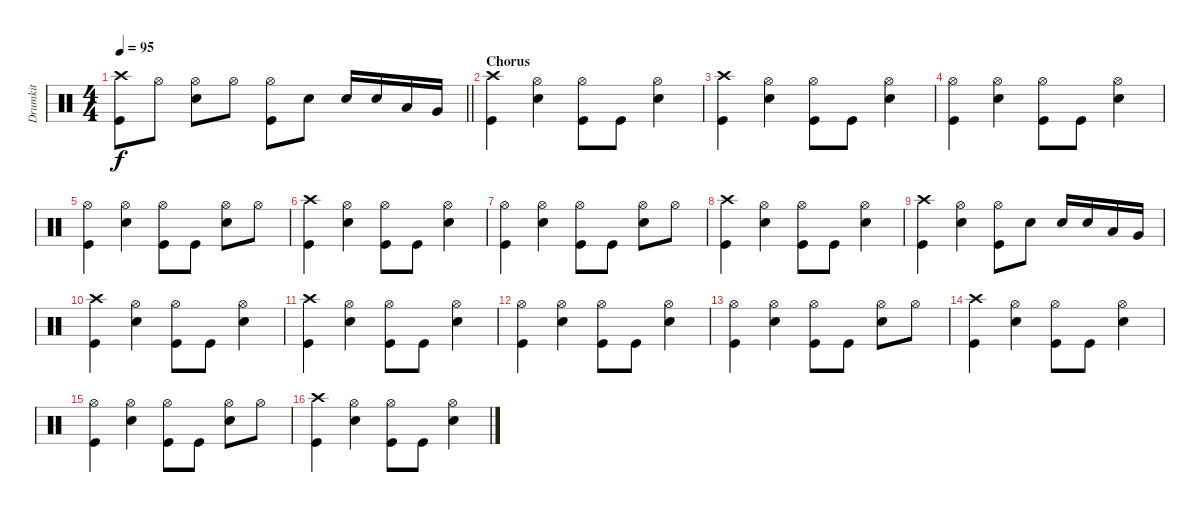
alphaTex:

\track ("Drumkit" "Drumkit") {instrument percussion}
\staff {score}
\articulation defaults
\ts (4 4)
\tempo 95
\clef neutral
\barLineRight lightlight
\ks c
("Kick (hit)" "Crash high (hit)").8{dy f} "Hi-Hat (open)".8 ("Snare (hit) 2" "Hi-Hat (open)").8 "Hi-Hat (open)".8 ("Hi-Hat (open)" "Kick (hit)").8 "Snare (hit) 2".8 "Snare (hit) 2".16 "Snare (hit) 2".16 "Low Tom (hit)".16 "Very Low Tom (hit)".16 |
\section ("" "Chorus")
("Kick (hit)" "Crash high (hit)").4 ("Snare (hit) 2" "Hi-Hat (open)").4 ("Kick (hit)" "Hi-Hat (open)").8 "Kick (hit)".8 ("Snare (hit) 2" "Hi-Hat (open)").4 |
("Kick (hit)" "Crash high (hit)").4 ("Snare (hit) 2" "Hi-Hat (open)").4 ("Kick (hit)" "Hi-Hat (open)").8 "Kick (hit)".8 ("Snare (hit) 2" "Hi-Hat (open)").4 |
("Kick (hit)" "Hi-Hat (open)").4 ("Snare (hit) 2" "Hi-Hat (open)").4 ("Kick (hit)" "Hi-Hat (open)").8 "Kick (hit)".8 ("Snare (hit) 2" "Hi-Hat (open)").4 |
("Kick (hit)" "Hi-Hat (open)").4 ("Snare (hit) 2" "Hi-Hat (open)").4 ("Kick (hit)" "Hi-Hat (open)").8 "Kick (hit)".8 ("Snare (hit) 2" "Hi-Hat (open)").8 "Hi-Hat (open)".8 |
("Kick (hit)" "Crash high (hit)").4 ("Snare (hit) 2" "Hi-Hat (open)").4 ("Kick (hit)" "Hi-Hat (open)").8 "Kick (hit)".8 ("Snare (hit) 2" "Hi-Hat (open)").4 |
("Kick (hit)" "Hi-Hat (open)").4 ("Snare (hit) 2" "Hi-Hat (open)").4 ("Kick (hit)" "Hi-Hat (open)").8 "Kick (hit)".8 ("Snare (hit) 2" "Hi-Hat (open)").8 "Hi-Hat (open)".8 |
("Kick (hit)" "Crash high (hit)").4 ("Snare (hit) 2" "Hi-Hat (open)").4 ("Kick (hit)" "Hi-Hat (open)").8 "Kick (hit)".8 ("Snare (hit) 2" "Hi-Hat (open)").4 |
("Kick (hit)" "Crash high (hit)").4 ("Snare (hit) 2" "Hi-Hat (open)").4 ("Hi-Hat (open)" "Kick (hit)").8 "Snare (hit) 2".8 "Snare (hit) 2".16 "Snare (hit) 2".16 "Low Tom (hit)".16 "Very Low Tom (hit)".16 |
("Kick (hit)" "Crash high (hit)").4 ("Snare (hit) 2" "Hi-Hat (open)").4 ("Kick (hit)" "Hi-Hat (open)").8 "Kick (hit)".8 ("Snare (hit) 2" "Hi-Hat (open)").4 |
("Kick (hit)" "Crash high (hit)").4 ("Snare (hit) 2" "Hi-Hat (open)").4 ("Kick (hit)" "Hi-Hat (open)").8 "Kick (hit)".8 ("Snare (hit) 2" "Hi-Hat (open)").4 |
("Kick (hit)" "Hi-Hat (open)").4 ("Snare (hit) 2" "Hi-Hat (open)").4 ("Kick (hit)" "Hi-Hat (open)").8 "Kick (hit)".8 ("Snare (hit) 2" "Hi-Hat (open)").4 |
("Kick (hit)" "Hi-Hat (open)").4 ("Snare (hit) 2" "Hi-Hat (open)").4 ("Kick (hit)" "Hi-Hat (open)").8 "Kick (hit)".8 ("Snare (hit) 2" "Hi-Hat (open)").8 "Hi-Hat (open)".8 |
("Kick (hit)" "Crash high (hit)").4 ("Snare (hit) 2" "Hi-Hat (open)").4 ("Kick (hit)" "Hi-Hat (open)").8 "Kick (hit)".8 ("Snare (hit) 2" "Hi-Hat (open)").4 |
("Kick (hit)" "Hi-Hat (open)").4 ("Snare (hit) 2" "Hi-Hat (open)").4 ("Kick (hit)" "Hi-Hat (open)").8 "Kick (hit)".8 ("Snare (hit) 2" "Hi-Hat (open)").8 "Hi-Hat (open)".8 |
("Kick (hit)" "Crash high (hit)").4 ("Snare (hit) 2" "Hi-Hat (open)").4 ("Kick (hit)" "Hi-Hat (open)").8 "Kick (hit)".8 ("Snare (hit) 2" "Hi-Hat (open)").4
